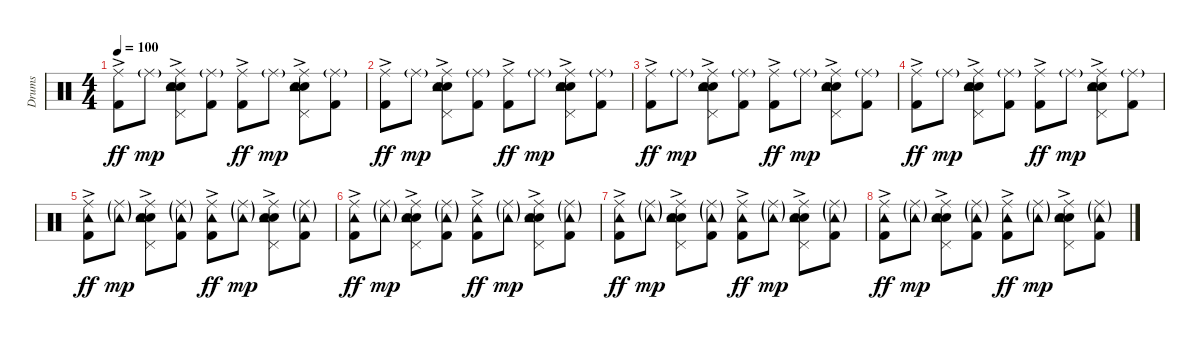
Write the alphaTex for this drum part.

\track ("Drums" "Drums") {instrument percussion}
\staff {score}
\articulation defaults
\ts (4 4)
\tempo 100
\clef neutral
\ks c
("Kick (hit) 2"{ac} "Ride (middle)").8{dy ff} "Ride (middle)"{g}.8{dy mp} ("Electric Snare (hit)"{ac} "Snare (hit) 2" "Pedal Hi-Hat (hit)" "Tambourine (hit)" "Ride (middle)").8 ("Kick (hit) 2" "Ride (middle)"{g}).8 ("Kick (hit) 2"{ac} "Ride (middle)").8{dy ff} "Ride (middle)"{g}.8{dy mp} ("Electric Snare (hit)"{ac} "Snare (hit) 2" "Pedal Hi-Hat (hit)" "Tambourine (hit)" "Ride (middle)").8 ("Kick (hit) 2" "Ride (middle)"{g}).8 |
("Kick (hit) 2"{ac} "Ride (middle)").8{dy ff} "Ride (middle)"{g}.8{dy mp} ("Electric Snare (hit)"{ac} "Snare (hit) 2" "Pedal Hi-Hat (hit)" "Tambourine (hit)" "Ride (middle)").8 ("Kick (hit) 2" "Ride (middle)"{g}).8 ("Kick (hit) 2"{ac} "Ride (middle)").8{dy ff} "Ride (middle)"{g}.8{dy mp} ("Electric Snare (hit)"{ac} "Snare (hit) 2" "Pedal Hi-Hat (hit)" "Tambourine (hit)" "Ride (middle)").8 ("Kick (hit) 2" "Ride (middle)"{g}).8 |
("Kick (hit) 2"{ac} "Ride (middle)").8{dy ff} "Ride (middle)"{g}.8{dy mp} ("Electric Snare (hit)"{ac} "Snare (hit) 2" "Pedal Hi-Hat (hit)" "Tambourine (hit)" "Ride (middle)").8 ("Kick (hit) 2" "Ride (middle)"{g}).8 ("Kick (hit) 2"{ac} "Ride (middle)").8{dy ff} "Ride (middle)"{g}.8{dy mp} ("Electric Snare (hit)"{ac} "Snare (hit) 2" "Pedal Hi-Hat (hit)" "Tambourine (hit)" "Ride (middle)").8 ("Kick (hit) 2" "Ride (middle)"{g}).8 |
("Kick (hit) 2"{ac} "Ride (middle)").8{dy ff} "Ride (middle)"{g}.8{dy mp} ("Electric Snare (hit)"{ac} "Snare (hit) 2" "Pedal Hi-Hat (hit)" "Tambourine (hit)" "Ride (middle)").8 ("Kick (hit) 2" "Ride (middle)"{g}).8 ("Kick (hit) 2"{ac} "Ride (middle)").8{dy ff} "Ride (middle)"{g}.8{dy mp} ("Electric Snare (hit)"{ac} "Snare (hit) 2" "Pedal Hi-Hat (hit)" "Tambourine (hit)" "Ride (middle)").8 ("Kick (hit) 2" "Ride (middle)"{g}).8 |
("Kick (hit) 2"{ac} "Tambourine (hit)" "Ride (middle)").8{dy ff} ("Tambourine (hit)"{g} "Ride (middle)"{g}).8{dy mp} ("Electric Snare (hit)"{ac} "Snare (hit) 2" "Pedal Hi-Hat (hit)" "Tambourine (hit)" "Ride (middle)").8 ("Kick (hit) 2" "Tambourine (hit)"{g} "Ride (middle)"{g}).8 ("Kick (hit) 2"{ac} "Tambourine (hit)" "Ride (middle)").8{dy ff} ("Tambourine (hit)"{g} "Ride (middle)"{g}).8{dy mp} ("Electric Snare (hit)"{ac} "Snare (hit) 2" "Pedal Hi-Hat (hit)" "Tambourine (hit)" "Ride (middle)").8 ("Kick (hit) 2" "Tambourine (hit)"{g} "Ride (middle)"{g}).8 |
("Kick (hit) 2"{ac} "Tambourine (hit)" "Ride (middle)").8{dy ff} ("Tambourine (hit)"{g} "Ride (middle)"{g}).8{dy mp} ("Electric Snare (hit)"{ac} "Snare (hit) 2" "Pedal Hi-Hat (hit)" "Tambourine (hit)" "Ride (middle)").8 ("Kick (hit) 2" "Tambourine (hit)"{g} "Ride (middle)"{g}).8 ("Kick (hit) 2"{ac} "Tambourine (hit)" "Ride (middle)").8{dy ff} ("Tambourine (hit)"{g} "Ride (middle)"{g}).8{dy mp} ("Electric Snare (hit)"{ac} "Snare (hit) 2" "Pedal Hi-Hat (hit)" "Tambourine (hit)" "Ride (middle)").8 ("Kick (hit) 2" "Tambourine (hit)"{g} "Ride (middle)"{g}).8 |
("Kick (hit) 2"{ac} "Tambourine (hit)" "Ride (middle)").8{dy ff} ("Tambourine (hit)"{g} "Ride (middle)"{g}).8{dy mp} ("Electric Snare (hit)"{ac} "Snare (hit) 2" "Pedal Hi-Hat (hit)" "Tambourine (hit)" "Ride (middle)").8 ("Kick (hit) 2" "Tambourine (hit)"{g} "Ride (middle)"{g}).8 ("Kick (hit) 2"{ac} "Tambourine (hit)" "Ride (middle)").8{dy ff} ("Tambourine (hit)"{g} "Ride (middle)"{g}).8{dy mp} ("Electric Snare (hit)"{ac} "Snare (hit) 2" "Pedal Hi-Hat (hit)" "Tambourine (hit)" "Ride (middle)").8 ("Kick (hit) 2" "Tambourine (hit)"{g} "Ride (middle)"{g}).8 |
("Kick (hit) 2"{ac} "Tambourine (hit)" "Ride (middle)").8{dy ff} ("Tambourine (hit)"{g} "Ride (middle)"{g}).8{dy mp} ("Electric Snare (hit)"{ac} "Snare (hit) 2" "Pedal Hi-Hat (hit)" "Tambourine (hit)" "Ride (middle)").8 ("Kick (hit) 2" "Tambourine (hit)"{g} "Ride (middle)"{g}).8 ("Kick (hit) 2"{ac} "Tambourine (hit)" "Ride (middle)").8{dy ff} ("Tambourine (hit)"{g} "Ride (middle)"{g}).8{dy mp} ("Electric Snare (hit)"{ac} "Snare (hit) 2" "Pedal Hi-Hat (hit)" "Tambourine (hit)" "Ride (middle)").8 ("Kick (hit) 2" "Tambourine (hit)"{g} "Ride (middle)"{g}).8
